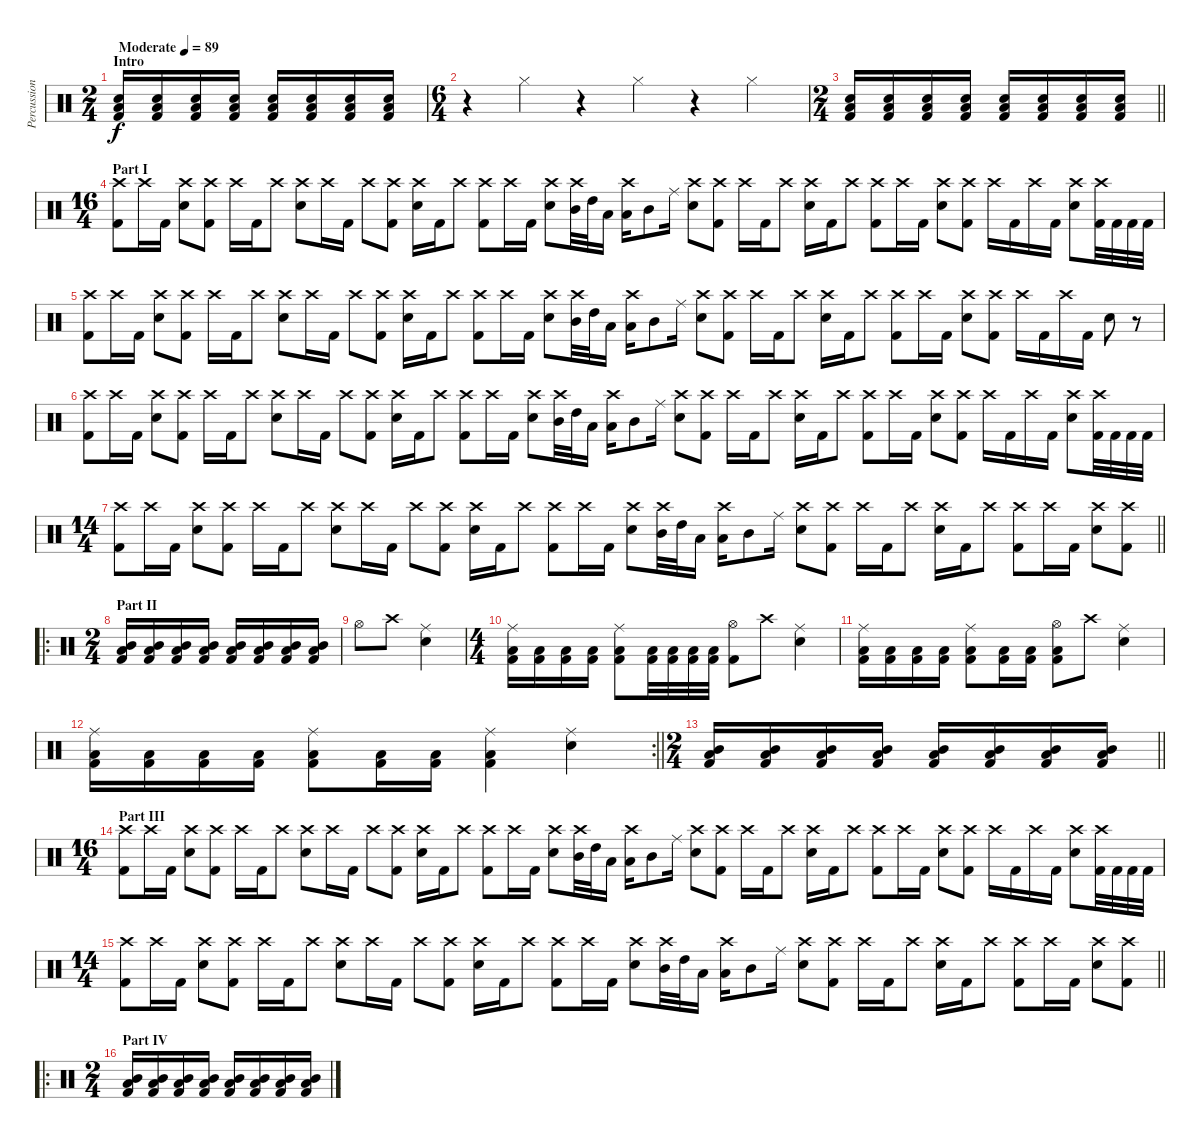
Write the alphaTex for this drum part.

\track ("Percussions" "Percussion") {instrument percussion}
\staff {score}
\articulation defaults
\ts (2 4)
\section ("" "Intro")
\tempo (89 "Moderate")
\clef neutral
\ks c
("Low Tom (hit)" "Snare (hit) 2" "Kick (hit) 2").16{dy f} ("Low Tom (hit)" "Snare (hit) 2" "Kick (hit) 2").16 ("Low Tom (hit)" "Snare (hit) 2" "Kick (hit) 2").16 ("Low Tom (hit)" "Snare (hit) 2" "Kick (hit) 2").16 ("Low Tom (hit)" "Snare (hit) 2" "Kick (hit) 2").16 ("Low Tom (hit)" "Snare (hit) 2" "Kick (hit) 2").16 ("Low Tom (hit)" "Snare (hit) 2" "Kick (hit) 2").16 ("Low Tom (hit)" "Snare (hit) 2" "Kick (hit) 2").16 |
\ts (6 4)
r.4 "Hi-Hat (closed)".4 r.4 "Hi-Hat (closed)".4 r.4 "Hi-Hat (closed)".4 |
\ts (2 4)
\barLineRight lightlight
("Low Tom (hit)" "Snare (hit) 2" "Kick (hit) 2").16 ("Low Tom (hit)" "Snare (hit) 2" "Kick (hit) 2").16 ("Low Tom (hit)" "Snare (hit) 2" "Kick (hit) 2").16 ("Low Tom (hit)" "Snare (hit) 2" "Kick (hit) 2").16 ("Low Tom (hit)" "Snare (hit) 2" "Kick (hit) 2").16 ("Low Tom (hit)" "Snare (hit) 2" "Kick (hit) 2").16 ("Low Tom (hit)" "Snare (hit) 2" "Kick (hit) 2").16 ("Low Tom (hit)" "Snare (hit) 2" "Kick (hit) 2").16 |
\ts (16 4)
\section ("" "Part I")
("Crash high (hit)" "Kick (hit) 2").8 "Crash high (hit)".16 "Kick (hit) 2".16 ("Crash high (hit)" "Snare (hit) 2").8 ("Crash high (hit)" "Kick (hit) 2").8 "Crash high (hit)".16 "Kick (hit) 2".16 "Crash high (hit)".8 ("Crash high (hit)" "Snare (hit) 2").8 "Crash high (hit)".16 "Kick (hit) 2".16 "Crash high (hit)".8 ("Crash high (hit)" "Kick (hit) 2").8 ("Crash high (hit)" "Snare (hit) 2").16 "Kick (hit) 2".16 "Crash high (hit)".8 ("Crash high (hit)" "Kick (hit) 2").8 "Crash high (hit)".16 "Kick (hit) 2".16 ("Crash high (hit)" "Snare (hit) 2").8 ("Crash high (hit)" "Mid Tom (hit)").32 "High Tom (hit)".32 "Low Tom (hit)".16 ("Crash high (hit)" "Low Tom (hit)").16 "Mid Tom (hit)".8 "Ride (middle)".16 ("Crash high (hit)" "Snare (hit) 2").8 ("Crash high (hit)" "Kick (hit) 2").8 "Crash high (hit)".16 "Kick (hit) 2".16 "Crash high (hit)".8 ("Crash high (hit)" "Snare (hit) 2").16 "Kick (hit) 2".16 "Crash high (hit)".8 ("Crash high (hit)" "Kick (hit) 2").8 "Crash high (hit)".16 "Kick (hit) 2".16 ("Crash high (hit)" "Snare (hit) 2").8 ("Crash high (hit)" "Kick (hit) 2").8 "Crash high (hit)".16 "Kick (hit) 2".16 "Crash high (hit)".16 "Kick (hit) 2".16 ("Crash high (hit)" "Snare (hit) 2").8 ("Crash high (hit)" "Kick (hit) 2").32 "Kick (hit) 2".32 "Kick (hit) 2".32 "Kick (hit) 2".32 |
("Crash high (hit)" "Kick (hit) 2").8 "Crash high (hit)".16 "Kick (hit) 2".16 ("Crash high (hit)" "Snare (hit) 2").8 ("Crash high (hit)" "Kick (hit) 2").8 "Crash high (hit)".16 "Kick (hit) 2".16 "Crash high (hit)".8 ("Crash high (hit)" "Snare (hit) 2").8 "Crash high (hit)".16 "Kick (hit) 2".16 "Crash high (hit)".8 ("Crash high (hit)" "Kick (hit) 2").8 ("Crash high (hit)" "Snare (hit) 2").16 "Kick (hit) 2".16 "Crash high (hit)".8 ("Crash high (hit)" "Kick (hit) 2").8 "Crash high (hit)".16 "Kick (hit) 2".16 ("Crash high (hit)" "Snare (hit) 2").8 ("Crash high (hit)" "Mid Tom (hit)").32 "High Tom (hit)".32 "Low Tom (hit)".16 ("Crash high (hit)" "Low Tom (hit)").16 "Mid Tom (hit)".8 "Ride (middle)".16 ("Crash high (hit)" "Snare (hit) 2").8 ("Crash high (hit)" "Kick (hit) 2").8 "Crash high (hit)".16 "Kick (hit) 2".16 "Crash high (hit)".8 ("Crash high (hit)" "Snare (hit) 2").16 "Kick (hit) 2".16 "Crash high (hit)".8 ("Crash high (hit)" "Kick (hit) 2").8 "Crash high (hit)".16 "Kick (hit) 2".16 ("Crash high (hit)" "Snare (hit) 2").8 ("Crash high (hit)" "Kick (hit) 2").8 "Crash high (hit)".16 "Kick (hit) 2".16 "Crash high (hit)".16 "Kick (hit) 2".16 "Snare (hit) 2".8 r.8 |
("Crash high (hit)" "Kick (hit) 2").8 "Crash high (hit)".16 "Kick (hit) 2".16 ("Crash high (hit)" "Snare (hit) 2").8 ("Crash high (hit)" "Kick (hit) 2").8 "Crash high (hit)".16 "Kick (hit) 2".16 "Crash high (hit)".8 ("Crash high (hit)" "Snare (hit) 2").8 "Crash high (hit)".16 "Kick (hit) 2".16 "Crash high (hit)".8 ("Crash high (hit)" "Kick (hit) 2").8 ("Crash high (hit)" "Snare (hit) 2").16 "Kick (hit) 2".16 "Crash high (hit)".8 ("Crash high (hit)" "Kick (hit) 2").8 "Crash high (hit)".16 "Kick (hit) 2".16 ("Crash high (hit)" "Snare (hit) 2").8 ("Crash high (hit)" "Mid Tom (hit)").32 "High Tom (hit)".32 "Low Tom (hit)".16 ("Crash high (hit)" "Low Tom (hit)").16 "Mid Tom (hit)".8 "Ride (middle)".16 ("Crash high (hit)" "Snare (hit) 2").8 ("Crash high (hit)" "Kick (hit) 2").8 "Crash high (hit)".16 "Kick (hit) 2".16 "Crash high (hit)".8 ("Crash high (hit)" "Snare (hit) 2").16 "Kick (hit) 2".16 "Crash high (hit)".8 ("Crash high (hit)" "Kick (hit) 2").8 "Crash high (hit)".16 "Kick (hit) 2".16 ("Crash high (hit)" "Snare (hit) 2").8 ("Crash high (hit)" "Kick (hit) 2").8 "Crash high (hit)".16 "Kick (hit) 2".16 "Crash high (hit)".16 "Kick (hit) 2".16 ("Crash high (hit)" "Snare (hit) 2").8 ("Crash high (hit)" "Kick (hit) 2").32 "Kick (hit) 2".32 "Kick (hit) 2".32 "Kick (hit) 2".32 |
\ts (14 4)
\barLineRight lightlight
("Crash high (hit)" "Kick (hit) 2").8 "Crash high (hit)".16 "Kick (hit) 2".16 ("Crash high (hit)" "Snare (hit) 2").8 ("Crash high (hit)" "Kick (hit) 2").8 "Crash high (hit)".16 "Kick (hit) 2".16 "Crash high (hit)".8 ("Crash high (hit)" "Snare (hit) 2").8 "Crash high (hit)".16 "Kick (hit) 2".16 "Crash high (hit)".8 ("Crash high (hit)" "Kick (hit) 2").8 ("Crash high (hit)" "Snare (hit) 2").16 "Kick (hit) 2".16 "Crash high (hit)".8 ("Crash high (hit)" "Kick (hit) 2").8 "Crash high (hit)".16 "Kick (hit) 2".16 ("Crash high (hit)" "Snare (hit) 2").8 ("Crash high (hit)" "Mid Tom (hit)").32 "High Tom (hit)".32 "Low Tom (hit)".16 ("Crash high (hit)" "Low Tom (hit)").16 "Mid Tom (hit)".8 "Ride (middle)".16 ("Crash high (hit)" "Snare (hit) 2").8 ("Crash high (hit)" "Kick (hit) 2").8 "Crash high (hit)".16 "Kick (hit) 2".16 "Crash high (hit)".8 ("Crash high (hit)" "Snare (hit) 2").16 "Kick (hit) 2".16 "Crash high (hit)".8 ("Crash high (hit)" "Kick (hit) 2").8 "Crash high (hit)".16 "Kick (hit) 2".16 ("Crash high (hit)" "Snare (hit) 2").8 ("Crash high (hit)" "Kick (hit) 2").8 |
\ro
\ts (2 4)
\section ("" "Part II")
("Low Tom (hit)" "Mid Tom (hit)" "Kick (hit) 2").16 ("Low Tom (hit)" "Mid Tom (hit)" "Kick (hit) 2").16 ("Low Tom (hit)" "Mid Tom (hit)" "Kick (hit) 2").16 ("Low Tom (hit)" "Mid Tom (hit)" "Kick (hit) 2").16 ("Low Tom (hit)" "Mid Tom (hit)" "Kick (hit) 2").16 ("Low Tom (hit)" "Mid Tom (hit)" "Kick (hit) 2").16 ("Low Tom (hit)" "Mid Tom (hit)" "Kick (hit) 2").16 ("Low Tom (hit)" "Mid Tom (hit)" "Kick (hit) 2").16 |
"Hi-Hat (open)".8 "Crash high (hit)".8 ("Ride (middle)" "Snare (hit) 2").4 |
\ts (4 4)
("Ride (middle)" "Low Tom (hit)" "Kick (hit) 2").16 ("Low Tom (hit)" "Kick (hit) 2").16 ("Low Tom (hit)" "Kick (hit) 2").16 ("Low Tom (hit)" "Kick (hit) 2").16 ("Ride (middle)" "Low Tom (hit)" "Kick (hit) 2").8 ("Low Tom (hit)" "Kick (hit) 2").32 ("Low Tom (hit)" "Kick (hit) 2").32 ("Low Tom (hit)" "Kick (hit) 2").32 ("Low Tom (hit)" "Kick (hit) 2").32 ("Hi-Hat (open)" "Kick (hit) 2").8 "Crash high (hit)".8 ("Ride (middle)" "Snare (hit) 2").4 |
("Ride (middle)" "Low Tom (hit)" "Kick (hit) 2").16 ("Low Tom (hit)" "Kick (hit) 2").16 ("Low Tom (hit)" "Kick (hit) 2").16 ("Low Tom (hit)" "Kick (hit) 2").16 ("Ride (middle)" "Low Tom (hit)" "Kick (hit) 2").8 ("Low Tom (hit)" "Kick (hit) 2").16 ("Low Tom (hit)" "Kick (hit) 2").16 ("Hi-Hat (open)" "Low Tom (hit)" "Kick (hit) 2").8 "Crash high (hit)".8 ("Ride (middle)" "Snare (hit) 2").4 |
\rc 2
\barLineRight lightlight
("Ride (middle)" "Low Tom (hit)" "Kick (hit) 2").16 ("Low Tom (hit)" "Kick (hit) 2").16 ("Low Tom (hit)" "Kick (hit) 2").16 ("Low Tom (hit)" "Kick (hit) 2").16 ("Ride (middle)" "Low Tom (hit)" "Kick (hit) 2").8 ("Low Tom (hit)" "Kick (hit) 2").16 ("Low Tom (hit)" "Kick (hit) 2").16 ("Ride (middle)" "Low Tom (hit)" "Kick (hit) 2").4 ("Ride (middle)" "Snare (hit) 2").4 |
\ts (2 4)
\barLineRight lightlight
("Low Tom (hit)" "Mid Tom (hit)" "Kick (hit) 2").16 ("Low Tom (hit)" "Mid Tom (hit)" "Kick (hit) 2").16 ("Low Tom (hit)" "Mid Tom (hit)" "Kick (hit) 2").16 ("Low Tom (hit)" "Mid Tom (hit)" "Kick (hit) 2").16 ("Low Tom (hit)" "Mid Tom (hit)" "Kick (hit) 2").16 ("Low Tom (hit)" "Mid Tom (hit)" "Kick (hit) 2").16 ("Low Tom (hit)" "Mid Tom (hit)" "Kick (hit) 2").16 ("Low Tom (hit)" "Mid Tom (hit)" "Kick (hit) 2").16 |
\ts (16 4)
\section ("" "Part III")
("Crash high (hit)" "Kick (hit) 2").8 "Crash high (hit)".16 "Kick (hit) 2".16 ("Crash high (hit)" "Snare (hit) 2").8 ("Crash high (hit)" "Kick (hit) 2").8 "Crash high (hit)".16 "Kick (hit) 2".16 "Crash high (hit)".8 ("Crash high (hit)" "Snare (hit) 2").8 "Crash high (hit)".16 "Kick (hit) 2".16 "Crash high (hit)".8 ("Crash high (hit)" "Kick (hit) 2").8 ("Crash high (hit)" "Snare (hit) 2").16 "Kick (hit) 2".16 "Crash high (hit)".8 ("Crash high (hit)" "Kick (hit) 2").8 "Crash high (hit)".16 "Kick (hit) 2".16 ("Crash high (hit)" "Snare (hit) 2").8 ("Crash high (hit)" "Mid Tom (hit)").32 "High Tom (hit)".32 "Low Tom (hit)".16 ("Crash high (hit)" "Low Tom (hit)").16 "Mid Tom (hit)".8 "Ride (middle)".16 ("Crash high (hit)" "Snare (hit) 2").8 ("Crash high (hit)" "Kick (hit) 2").8 "Crash high (hit)".16 "Kick (hit) 2".16 "Crash high (hit)".8 ("Crash high (hit)" "Snare (hit) 2").16 "Kick (hit) 2".16 "Crash high (hit)".8 ("Crash high (hit)" "Kick (hit) 2").8 "Crash high (hit)".16 "Kick (hit) 2".16 ("Crash high (hit)" "Snare (hit) 2").8 ("Crash high (hit)" "Kick (hit) 2").8 "Crash high (hit)".16 "Kick (hit) 2".16 "Crash high (hit)".16 "Kick (hit) 2".16 ("Crash high (hit)" "Snare (hit) 2").8 ("Crash high (hit)" "Kick (hit) 2").32 "Kick (hit) 2".32 "Kick (hit) 2".32 "Kick (hit) 2".32 |
\ts (14 4)
\barLineRight lightlight
("Crash high (hit)" "Kick (hit) 2").8 "Crash high (hit)".16 "Kick (hit) 2".16 ("Crash high (hit)" "Snare (hit) 2").8 ("Crash high (hit)" "Kick (hit) 2").8 "Crash high (hit)".16 "Kick (hit) 2".16 "Crash high (hit)".8 ("Crash high (hit)" "Snare (hit) 2").8 "Crash high (hit)".16 "Kick (hit) 2".16 "Crash high (hit)".8 ("Crash high (hit)" "Kick (hit) 2").8 ("Crash high (hit)" "Snare (hit) 2").16 "Kick (hit) 2".16 "Crash high (hit)".8 ("Crash high (hit)" "Kick (hit) 2").8 "Crash high (hit)".16 "Kick (hit) 2".16 ("Crash high (hit)" "Snare (hit) 2").8 ("Crash high (hit)" "Mid Tom (hit)").32 "High Tom (hit)".32 "Low Tom (hit)".16 ("Crash high (hit)" "Low Tom (hit)").16 "Mid Tom (hit)".8 "Ride (middle)".16 ("Crash high (hit)" "Snare (hit) 2").8 ("Crash high (hit)" "Kick (hit) 2").8 "Crash high (hit)".16 "Kick (hit) 2".16 "Crash high (hit)".8 ("Crash high (hit)" "Snare (hit) 2").16 "Kick (hit) 2".16 "Crash high (hit)".8 ("Crash high (hit)" "Kick (hit) 2").8 "Crash high (hit)".16 "Kick (hit) 2".16 ("Crash high (hit)" "Snare (hit) 2").8 ("Crash high (hit)" "Kick (hit) 2").8 |
\ro
\ts (2 4)
\section ("" "Part IV")
("Low Tom (hit)" "Mid Tom (hit)" "Kick (hit) 2").16 ("Low Tom (hit)" "Mid Tom (hit)" "Kick (hit) 2").16 ("Low Tom (hit)" "Mid Tom (hit)" "Kick (hit) 2").16 ("Low Tom (hit)" "Mid Tom (hit)" "Kick (hit) 2").16 ("Low Tom (hit)" "Mid Tom (hit)" "Kick (hit) 2").16 ("Low Tom (hit)" "Mid Tom (hit)" "Kick (hit) 2").16 ("Low Tom (hit)" "Mid Tom (hit)" "Kick (hit) 2").16 ("Low Tom (hit)" "Mid Tom (hit)" "Kick (hit) 2").16
